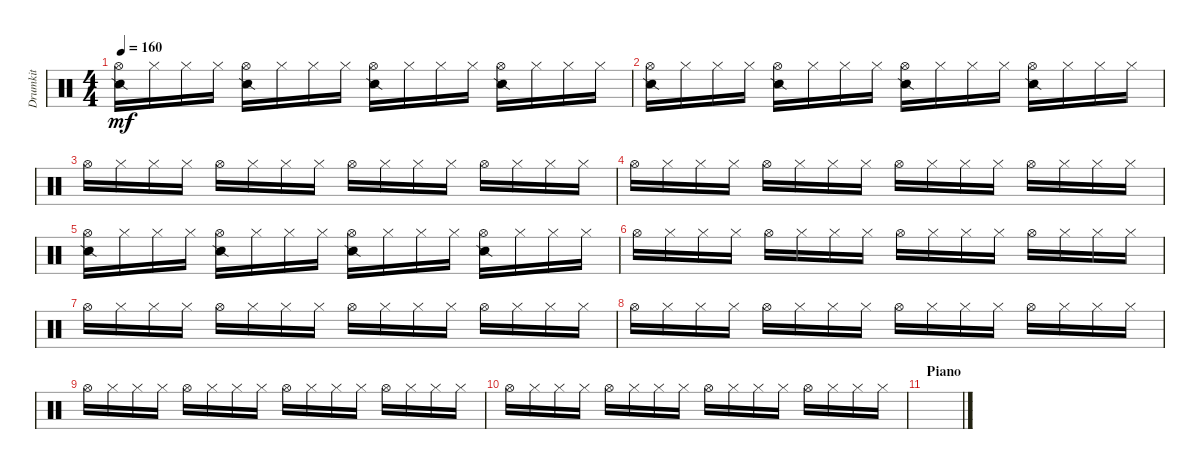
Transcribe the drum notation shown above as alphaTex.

\track ("Drumkit" "Drumkit") {instrument percussion}
\staff {score}
\articulation defaults
\ts (4 4)
\tempo 160
\clef neutral
\ks c
("Hi-Hat (open)" "Snare (side stick) 2").16{dy mf} "Hi-Hat (closed)".16 "Hi-Hat (closed)".16 "Hi-Hat (closed)".16 ("Hi-Hat (open)" "Snare (side stick) 2").16 "Hi-Hat (closed)".16 "Hi-Hat (closed)".16 "Hi-Hat (closed)".16 ("Hi-Hat (open)" "Snare (side stick) 2").16 "Hi-Hat (closed)".16 "Hi-Hat (closed)".16 "Hi-Hat (closed)".16 ("Hi-Hat (open)" "Snare (side stick) 2").16 "Hi-Hat (closed)".16 "Hi-Hat (closed)".16 "Hi-Hat (closed)".16 |
("Hi-Hat (open)" "Snare (side stick) 2").16 "Hi-Hat (closed)".16 "Hi-Hat (closed)".16 "Hi-Hat (closed)".16 ("Hi-Hat (open)" "Snare (side stick) 2").16 "Hi-Hat (closed)".16 "Hi-Hat (closed)".16 "Hi-Hat (closed)".16 ("Hi-Hat (open)" "Snare (side stick) 2").16 "Hi-Hat (closed)".16 "Hi-Hat (closed)".16 "Hi-Hat (closed)".16 ("Hi-Hat (open)" "Snare (side stick) 2").16 "Hi-Hat (closed)".16 "Hi-Hat (closed)".16 "Hi-Hat (closed)".16 |
"Hi-Hat (open)".16 "Hi-Hat (closed)".16 "Hi-Hat (closed)".16 "Hi-Hat (closed)".16 "Hi-Hat (open)".16 "Hi-Hat (closed)".16 "Hi-Hat (closed)".16 "Hi-Hat (closed)".16 "Hi-Hat (open)".16 "Hi-Hat (closed)".16 "Hi-Hat (closed)".16 "Hi-Hat (closed)".16 "Hi-Hat (open)".16 "Hi-Hat (closed)".16 "Hi-Hat (closed)".16 "Hi-Hat (closed)".16 |
"Hi-Hat (open)".16 "Hi-Hat (closed)".16 "Hi-Hat (closed)".16 "Hi-Hat (closed)".16 "Hi-Hat (open)".16 "Hi-Hat (closed)".16 "Hi-Hat (closed)".16 "Hi-Hat (closed)".16 "Hi-Hat (open)".16 "Hi-Hat (closed)".16 "Hi-Hat (closed)".16 "Hi-Hat (closed)".16 "Hi-Hat (open)".16 "Hi-Hat (closed)".16 "Hi-Hat (closed)".16 "Hi-Hat (closed)".16 |
("Hi-Hat (open)" "Snare (side stick) 2").16 "Hi-Hat (closed)".16 "Hi-Hat (closed)".16 "Hi-Hat (closed)".16 ("Hi-Hat (open)" "Snare (side stick) 2").16 "Hi-Hat (closed)".16 "Hi-Hat (closed)".16 "Hi-Hat (closed)".16 ("Hi-Hat (open)" "Snare (side stick) 2").16 "Hi-Hat (closed)".16 "Hi-Hat (closed)".16 "Hi-Hat (closed)".16 ("Hi-Hat (open)" "Snare (side stick) 2").16 "Hi-Hat (closed)".16 "Hi-Hat (closed)".16 "Hi-Hat (closed)".16 |
"Hi-Hat (open)".16 "Hi-Hat (closed)".16 "Hi-Hat (closed)".16 "Hi-Hat (closed)".16 "Hi-Hat (open)".16 "Hi-Hat (closed)".16 "Hi-Hat (closed)".16 "Hi-Hat (closed)".16 "Hi-Hat (open)".16 "Hi-Hat (closed)".16 "Hi-Hat (closed)".16 "Hi-Hat (closed)".16 "Hi-Hat (open)".16 "Hi-Hat (closed)".16 "Hi-Hat (closed)".16 "Hi-Hat (closed)".16 |
"Hi-Hat (open)".16 "Hi-Hat (closed)".16 "Hi-Hat (closed)".16 "Hi-Hat (closed)".16 "Hi-Hat (open)".16 "Hi-Hat (closed)".16 "Hi-Hat (closed)".16 "Hi-Hat (closed)".16 "Hi-Hat (open)".16 "Hi-Hat (closed)".16 "Hi-Hat (closed)".16 "Hi-Hat (closed)".16 "Hi-Hat (open)".16 "Hi-Hat (closed)".16 "Hi-Hat (closed)".16 "Hi-Hat (closed)".16 |
"Hi-Hat (open)".16 "Hi-Hat (closed)".16 "Hi-Hat (closed)".16 "Hi-Hat (closed)".16 "Hi-Hat (open)".16 "Hi-Hat (closed)".16 "Hi-Hat (closed)".16 "Hi-Hat (closed)".16 "Hi-Hat (open)".16 "Hi-Hat (closed)".16 "Hi-Hat (closed)".16 "Hi-Hat (closed)".16 "Hi-Hat (open)".16 "Hi-Hat (closed)".16 "Hi-Hat (closed)".16 "Hi-Hat (closed)".16 |
"Hi-Hat (open)".16 "Hi-Hat (closed)".16 "Hi-Hat (closed)".16 "Hi-Hat (closed)".16 "Hi-Hat (open)".16 "Hi-Hat (closed)".16 "Hi-Hat (closed)".16 "Hi-Hat (closed)".16 "Hi-Hat (open)".16 "Hi-Hat (closed)".16 "Hi-Hat (closed)".16 "Hi-Hat (closed)".16 "Hi-Hat (open)".16 "Hi-Hat (closed)".16 "Hi-Hat (closed)".16 "Hi-Hat (closed)".16 |
"Hi-Hat (open)".16 "Hi-Hat (closed)".16 "Hi-Hat (closed)".16 "Hi-Hat (closed)".16 "Hi-Hat (open)".16 "Hi-Hat (closed)".16 "Hi-Hat (closed)".16 "Hi-Hat (closed)".16 "Hi-Hat (open)".16 "Hi-Hat (closed)".16 "Hi-Hat (closed)".16 "Hi-Hat (closed)".16 "Hi-Hat (open)".16 "Hi-Hat (closed)".16 "Hi-Hat (closed)".16 "Hi-Hat (closed)".16 |
\section ("" "Piano")
